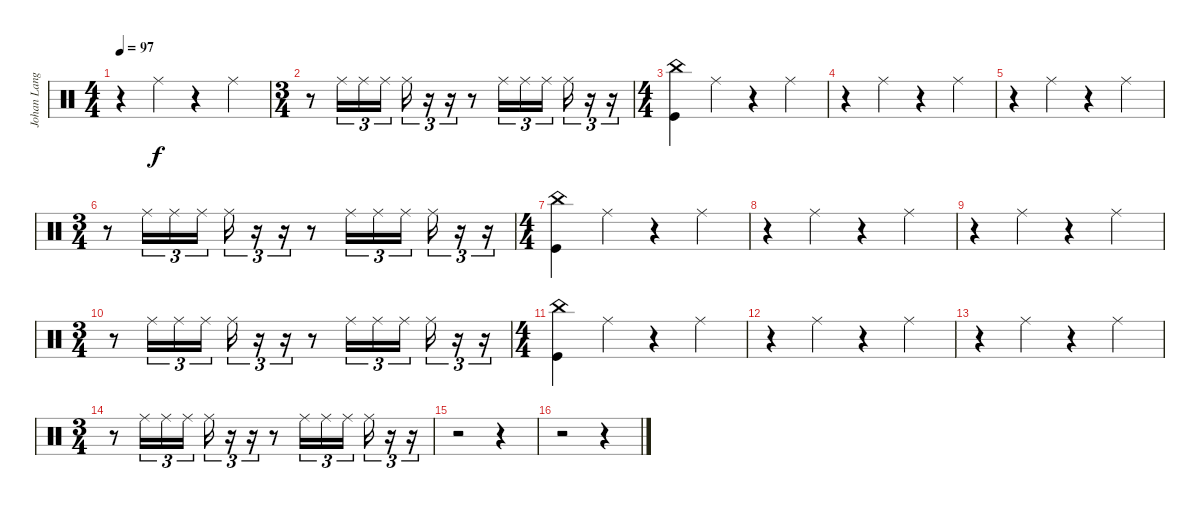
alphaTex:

\track ("Johan Langell" "Johan Lang") {instrument percussion}
\staff {score}
\articulation defaults
\ts (4 4)
\tempo 97
\clef neutral
\ks c
r.4{dy f} "Ride (middle)".4 r.4 "Ride (middle)".4 |
\ts (3 4)
r.8 "Ride (middle)".16{tu (3 2)} "Ride (middle)".16{tu (3 2)} "Ride (middle)".16{tu (3 2)} "Ride (middle)".16{tu (3 2)} r.16{tu (3 2)} r.16{tu (3 2)} r.8 "Ride (middle)".16{tu (3 2)} "Ride (middle)".16{tu (3 2)} "Ride (middle)".16{tu (3 2)} "Ride (middle)".16{tu (3 2)} r.16{tu (3 2)} r.16{tu (3 2)} |
\ts (4 4)
("China (hit)" "Kick (hit)").4 "Ride (middle)".4 r.4 "Ride (middle)".4 |
r.4 "Ride (middle)".4 r.4 "Ride (middle)".4 |
r.4 "Ride (middle)".4 r.4 "Ride (middle)".4 |
\ts (3 4)
r.8 "Ride (middle)".16{tu (3 2)} "Ride (middle)".16{tu (3 2)} "Ride (middle)".16{tu (3 2)} "Ride (middle)".16{tu (3 2)} r.16{tu (3 2)} r.16{tu (3 2)} r.8 "Ride (middle)".16{tu (3 2)} "Ride (middle)".16{tu (3 2)} "Ride (middle)".16{tu (3 2)} "Ride (middle)".16{tu (3 2)} r.16{tu (3 2)} r.16{tu (3 2)} |
\ts (4 4)
("China (hit)" "Kick (hit)").4 "Ride (middle)".4 r.4 "Ride (middle)".4 |
r.4 "Ride (middle)".4 r.4 "Ride (middle)".4 |
r.4 "Ride (middle)".4 r.4 "Ride (middle)".4 |
\ts (3 4)
r.8 "Ride (middle)".16{tu (3 2)} "Ride (middle)".16{tu (3 2)} "Ride (middle)".16{tu (3 2)} "Ride (middle)".16{tu (3 2)} r.16{tu (3 2)} r.16{tu (3 2)} r.8 "Ride (middle)".16{tu (3 2)} "Ride (middle)".16{tu (3 2)} "Ride (middle)".16{tu (3 2)} "Ride (middle)".16{tu (3 2)} r.16{tu (3 2)} r.16{tu (3 2)} |
\ts (4 4)
("China (hit)" "Kick (hit)").4 "Ride (middle)".4 r.4 "Ride (middle)".4 |
r.4 "Ride (middle)".4 r.4 "Ride (middle)".4 |
r.4 "Ride (middle)".4 r.4 "Ride (middle)".4 |
\ts (3 4)
r.8 "Ride (middle)".16{tu (3 2)} "Ride (middle)".16{tu (3 2)} "Ride (middle)".16{tu (3 2)} "Ride (middle)".16{tu (3 2)} r.16{tu (3 2)} r.16{tu (3 2)} r.8 "Ride (middle)".16{tu (3 2)} "Ride (middle)".16{tu (3 2)} "Ride (middle)".16{tu (3 2)} "Ride (middle)".16{tu (3 2)} r.16{tu (3 2)} r.16{tu (3 2)} |
r.2 r.4 |
r.2 r.4
